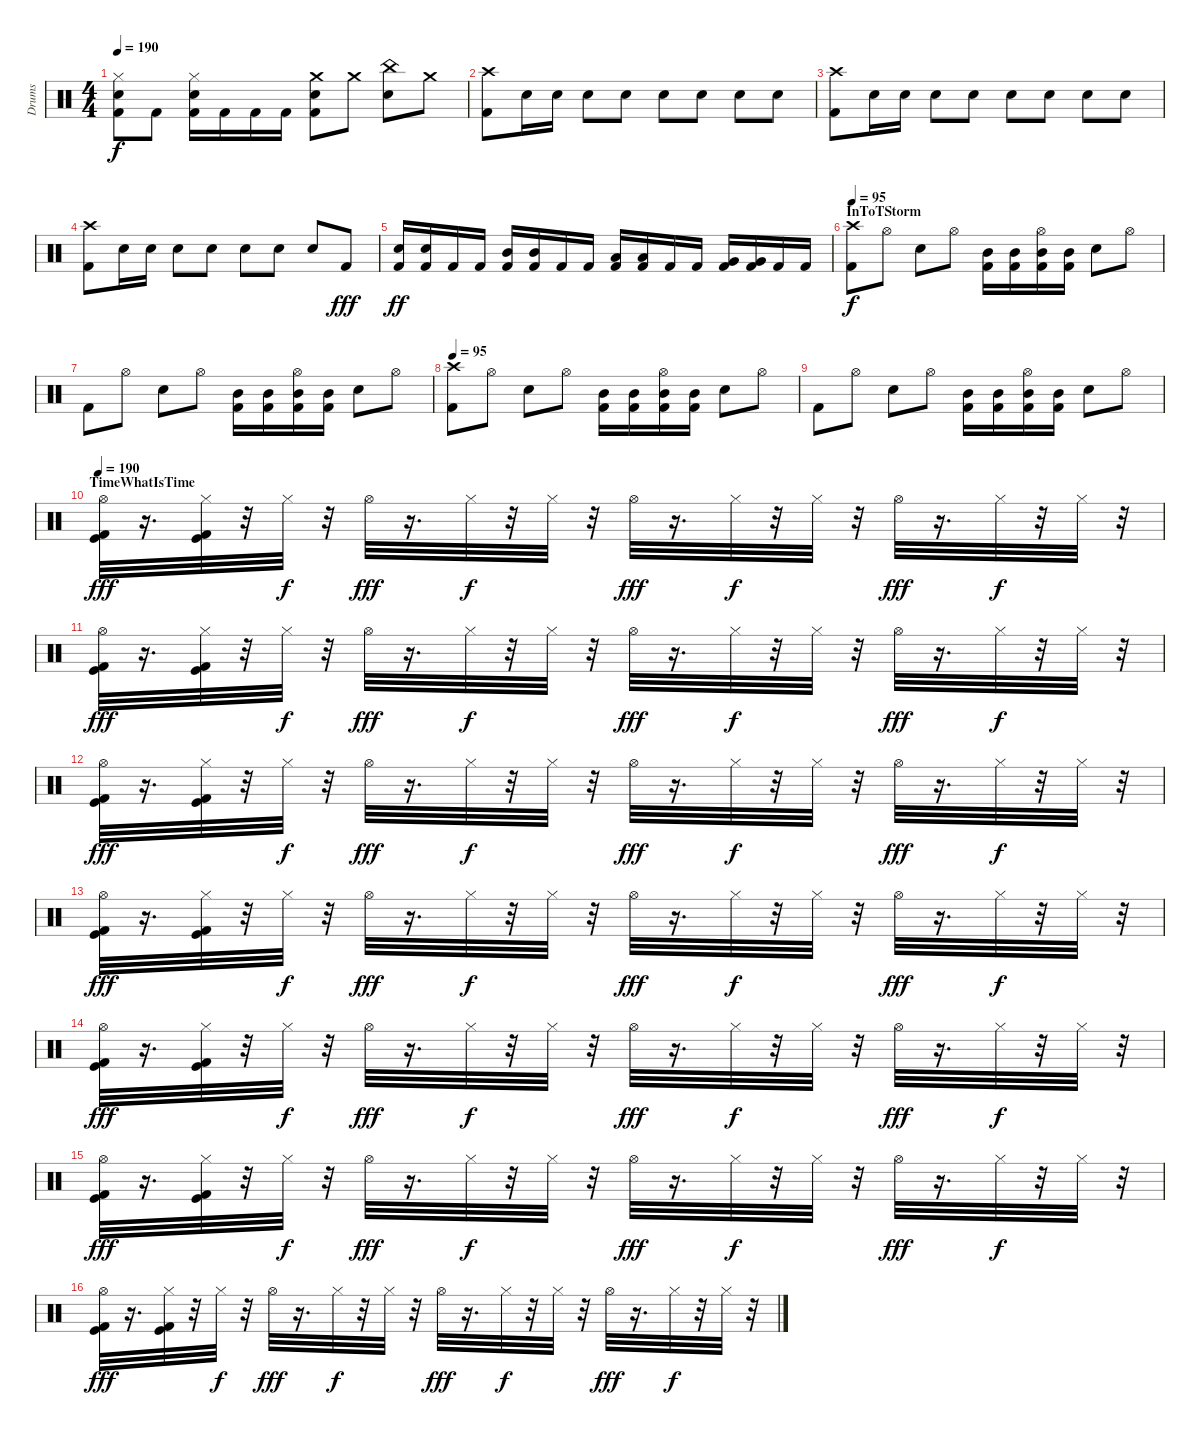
\track ("Drums" "Drums") {instrument percussion}
\staff {score}
\articulation defaults
\ts (4 4)
\tempo 190
\clef neutral
\ks c
("Kick (hit) 2" "Snare (hit) 2" "Hi-Hat (closed)").8{dy f} "Kick (hit) 2".8 ("Kick (hit) 2" "Snare (hit) 2" "Hi-Hat (closed)").16 "Kick (hit) 2".16 "Kick (hit) 2".16 "Kick (hit) 2".16 ("Kick (hit) 2" "Snare (hit) 2" "Crash medium (hit)").8 "Crash medium (hit)".8 ("Snare (hit) 2" "China (hit)").8 "Crash medium (hit)".8 |
("Kick (hit) 2" "Crash high (hit)").8 "Snare (hit) 2".16 "Snare (hit) 2".16 "Snare (hit) 2".8 "Snare (hit) 2".8 "Snare (hit) 2".8 "Snare (hit) 2".8 "Snare (hit) 2".8 "Snare (hit) 2".8 |
("Kick (hit) 2" "Crash high (hit)").8 "Snare (hit) 2".16 "Snare (hit) 2".16 "Snare (hit) 2".8 "Snare (hit) 2".8 "Snare (hit) 2".8 "Snare (hit) 2".8 "Snare (hit) 2".8 "Snare (hit) 2".8 |
("Kick (hit) 2" "Crash high (hit)").8 "Snare (hit) 2".16 "Snare (hit) 2".16 "Snare (hit) 2".8 "Snare (hit) 2".8 "Snare (hit) 2".8 "Snare (hit) 2".8 "Snare (hit) 2".8 "Kick (hit) 2".8{dy fff} |
("Kick (hit) 2" "Snare (hit) 2").16{dy ff} ("Kick (hit) 2" "Snare (hit) 2").16 "Kick (hit) 2".16 "Kick (hit) 2".16 ("Kick (hit) 2" "Mid Tom (hit)").16 ("Kick (hit) 2" "Mid Tom (hit)").16 "Kick (hit) 2".16 "Kick (hit) 2".16 ("Kick (hit) 2" "Low Tom (hit)").16 ("Kick (hit) 2" "Low Tom (hit)").16 "Kick (hit) 2".16 "Kick (hit) 2".16 ("Kick (hit) 2" "Very Low Tom (hit)").16 ("Kick (hit) 2" "Very Low Tom (hit)").16 "Kick (hit) 2".16 "Kick (hit) 2".16 |
\section ("" "InToTStorm")
\tempo 95
("Crash high (hit)" "Kick (hit) 2").8{dy f} "Hi-Hat (open)".8 "Snare (hit) 2".8 "Hi-Hat (open)".8 ("Mid Tom (hit)" "Kick (hit) 2").16 ("Mid Tom (hit)" "Kick (hit) 2").16 ("Hi-Hat (open)" "Mid Tom (hit)" "Kick (hit) 2").16 ("Mid Tom (hit)" "Kick (hit) 2").16 "Snare (hit) 2".8 "Hi-Hat (open)".8 |
"Kick (hit) 2".8 "Hi-Hat (open)".8 "Snare (hit) 2".8 "Hi-Hat (open)".8 ("Mid Tom (hit)" "Kick (hit) 2").16 ("Mid Tom (hit)" "Kick (hit) 2").16 ("Hi-Hat (open)" "Mid Tom (hit)" "Kick (hit) 2").16 ("Mid Tom (hit)" "Kick (hit) 2").16 "Snare (hit) 2".8 "Hi-Hat (open)".8 |
\tempo 95
("Crash high (hit)" "Kick (hit) 2").8 "Hi-Hat (open)".8 "Snare (hit) 2".8 "Hi-Hat (open)".8 ("Mid Tom (hit)" "Kick (hit) 2").16 ("Mid Tom (hit)" "Kick (hit) 2").16 ("Hi-Hat (open)" "Mid Tom (hit)" "Kick (hit) 2").16 ("Mid Tom (hit)" "Kick (hit) 2").16 "Snare (hit) 2".8 "Hi-Hat (open)".8 |
"Kick (hit) 2".8 "Hi-Hat (open)".8 "Snare (hit) 2".8 "Hi-Hat (open)".8 ("Mid Tom (hit)" "Kick (hit) 2").16 ("Mid Tom (hit)" "Kick (hit) 2").16 ("Hi-Hat (open)" "Mid Tom (hit)" "Kick (hit) 2").16 ("Mid Tom (hit)" "Kick (hit) 2").16 "Snare (hit) 2".8 "Hi-Hat (open)".8 |
\section ("" "TimeWhatIsTime")
\tempo 190
("Kick (hit)" "Kick (hit) 2" "Hi-Hat (open)").32{dy fff} r.16{d} ("Kick (hit)" "Kick (hit) 2" "Hi-Hat (closed)").32 r.32 "Hi-Hat (closed)".32{dy f} r.32 "Hi-Hat (open)".32{dy fff} r.16{d} "Hi-Hat (closed)".32{dy f} r.32 "Hi-Hat (closed)".32 r.32 "Hi-Hat (open)".32{dy fff} r.16{d} "Hi-Hat (closed)".32{dy f} r.32 "Hi-Hat (closed)".32 r.32 "Hi-Hat (open)".32{dy fff} r.16{d} "Hi-Hat (closed)".32{dy f} r.32 "Hi-Hat (closed)".32 r.32 |
("Kick (hit)" "Kick (hit) 2" "Hi-Hat (open)").32{dy fff} r.16{d} ("Kick (hit)" "Kick (hit) 2" "Hi-Hat (closed)").32 r.32 "Hi-Hat (closed)".32{dy f} r.32 "Hi-Hat (open)".32{dy fff} r.16{d} "Hi-Hat (closed)".32{dy f} r.32 "Hi-Hat (closed)".32 r.32 "Hi-Hat (open)".32{dy fff} r.16{d} "Hi-Hat (closed)".32{dy f} r.32 "Hi-Hat (closed)".32 r.32 "Hi-Hat (open)".32{dy fff} r.16{d} "Hi-Hat (closed)".32{dy f} r.32 "Hi-Hat (closed)".32 r.32 |
("Kick (hit)" "Kick (hit) 2" "Hi-Hat (open)").32{dy fff} r.16{d} ("Kick (hit)" "Kick (hit) 2" "Hi-Hat (closed)").32 r.32 "Hi-Hat (closed)".32{dy f} r.32 "Hi-Hat (open)".32{dy fff} r.16{d} "Hi-Hat (closed)".32{dy f} r.32 "Hi-Hat (closed)".32 r.32 "Hi-Hat (open)".32{dy fff} r.16{d} "Hi-Hat (closed)".32{dy f} r.32 "Hi-Hat (closed)".32 r.32 "Hi-Hat (open)".32{dy fff} r.16{d} "Hi-Hat (closed)".32{dy f} r.32 "Hi-Hat (closed)".32 r.32 |
("Kick (hit)" "Kick (hit) 2" "Hi-Hat (open)").32{dy fff} r.16{d} ("Kick (hit)" "Kick (hit) 2" "Hi-Hat (closed)").32 r.32 "Hi-Hat (closed)".32{dy f} r.32 "Hi-Hat (open)".32{dy fff} r.16{d} "Hi-Hat (closed)".32{dy f} r.32 "Hi-Hat (closed)".32 r.32 "Hi-Hat (open)".32{dy fff} r.16{d} "Hi-Hat (closed)".32{dy f} r.32 "Hi-Hat (closed)".32 r.32 "Hi-Hat (open)".32{dy fff} r.16{d} "Hi-Hat (closed)".32{dy f} r.32 "Hi-Hat (closed)".32 r.32 |
("Kick (hit)" "Kick (hit) 2" "Hi-Hat (open)").32{dy fff} r.16{d} ("Kick (hit)" "Kick (hit) 2" "Hi-Hat (closed)").32 r.32 "Hi-Hat (closed)".32{dy f} r.32 "Hi-Hat (open)".32{dy fff} r.16{d} "Hi-Hat (closed)".32{dy f} r.32 "Hi-Hat (closed)".32 r.32 "Hi-Hat (open)".32{dy fff} r.16{d} "Hi-Hat (closed)".32{dy f} r.32 "Hi-Hat (closed)".32 r.32 "Hi-Hat (open)".32{dy fff} r.16{d} "Hi-Hat (closed)".32{dy f} r.32 "Hi-Hat (closed)".32 r.32 |
("Kick (hit)" "Kick (hit) 2" "Hi-Hat (open)").32{dy fff} r.16{d} ("Kick (hit)" "Kick (hit) 2" "Hi-Hat (closed)").32 r.32 "Hi-Hat (closed)".32{dy f} r.32 "Hi-Hat (open)".32{dy fff} r.16{d} "Hi-Hat (closed)".32{dy f} r.32 "Hi-Hat (closed)".32 r.32 "Hi-Hat (open)".32{dy fff} r.16{d} "Hi-Hat (closed)".32{dy f} r.32 "Hi-Hat (closed)".32 r.32 "Hi-Hat (open)".32{dy fff} r.16{d} "Hi-Hat (closed)".32{dy f} r.32 "Hi-Hat (closed)".32 r.32 |
("Kick (hit)" "Kick (hit) 2" "Hi-Hat (open)").32{dy fff} r.16{d} ("Kick (hit)" "Kick (hit) 2" "Hi-Hat (closed)").32 r.32 "Hi-Hat (closed)".32{dy f} r.32 "Hi-Hat (open)".32{dy fff} r.16{d} "Hi-Hat (closed)".32{dy f} r.32 "Hi-Hat (closed)".32 r.32 "Hi-Hat (open)".32{dy fff} r.16{d} "Hi-Hat (closed)".32{dy f} r.32 "Hi-Hat (closed)".32 r.32 "Hi-Hat (open)".32{dy fff} r.16{d} "Hi-Hat (closed)".32{dy f} r.32 "Hi-Hat (closed)".32 r.32
